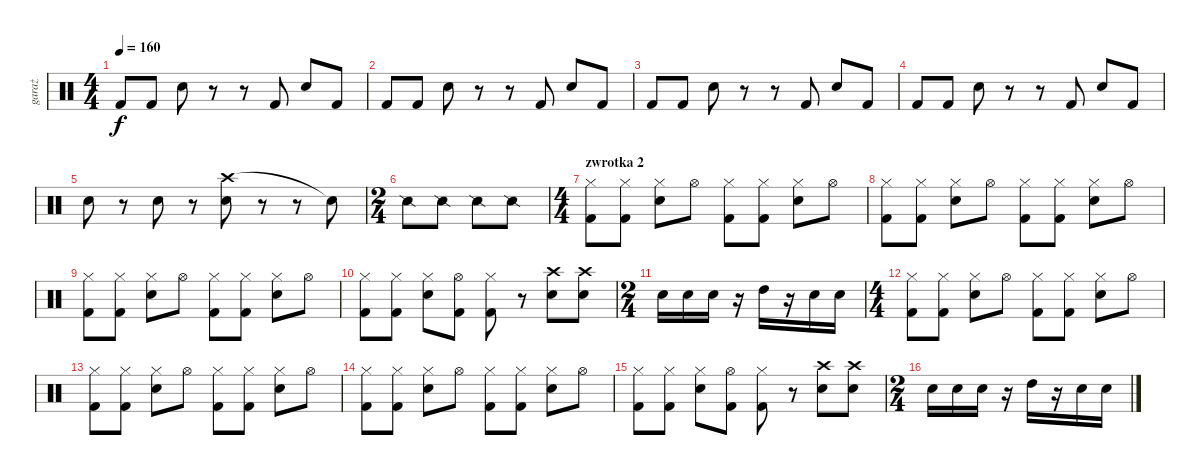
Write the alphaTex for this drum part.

\track ("garaż" "garaż") {instrument percussion}
\staff {score}
\articulation defaults
\ts (4 4)
\tempo 160
\clef neutral
\ks c "Kick (hit) 2".8{dy f} "Kick (hit) 2".8 "Snare (hit) 2".8
r.8 r.8 "Kick (hit) 2".8 "Snare (hit) 2".8 "Kick (hit) 2".8 |
"Kick (hit) 2".8 "Kick (hit) 2".8 "Snare (hit) 2".8 r.8 r.8 "Kick (hit) 2".8 "Snare (hit) 2".8 "Kick (hit) 2".8 |
"Kick (hit) 2".8 "Kick (hit) 2".8 "Snare (hit) 2".8 r.8 r.8 "Kick (hit) 2".8 "Snare (hit) 2".8 "Kick (hit) 2".8 |
"Kick (hit) 2".8 "Kick (hit) 2".8 "Snare (hit) 2".8 r.8 r.8 "Kick (hit) 2".8 "Snare (hit) 2".8 "Kick (hit) 2".8 |
"Snare (hit) 2".8 r.8 "Snare (hit) 2".8 r.8 ("Crash high (hit)" "Snare (hit) 2").8 r.8 r.8 "Snare (hit)"{t}.8 |
\ts (2 4)
"Snare (side stick) 2".8 "Snare (side stick) 2".8 "Snare (side stick) 2".8 "Snare (side stick) 2".8 |
\ts (4 4)
\section ("" "zwrotka 2")
("Hi-Hat (closed)" "Kick (hit) 2").8 ("Hi-Hat (closed)" "Kick (hit) 2").8 ("Hi-Hat (closed)" "Snare (hit) 2").8 "Hi-Hat (open)".8 ("Hi-Hat (closed)" "Kick (hit) 2").8 ("Hi-Hat (closed)" "Kick (hit) 2").8 ("Hi-Hat (closed)" "Snare (hit) 2").8 "Hi-Hat (open)".8 |
("Hi-Hat (closed)" "Kick (hit) 2").8 ("Hi-Hat (closed)" "Kick (hit) 2").8 ("Hi-Hat (closed)" "Snare (hit) 2").8 "Hi-Hat (open)".8 ("Hi-Hat (closed)" "Kick (hit) 2").8 ("Hi-Hat (closed)" "Kick (hit) 2").8 ("Hi-Hat (closed)" "Snare (hit) 2").8 "Hi-Hat (open)".8 |
("Hi-Hat (closed)" "Kick (hit) 2").8 ("Hi-Hat (closed)" "Kick (hit) 2").8 ("Hi-Hat (closed)" "Snare (hit) 2").8 "Hi-Hat (open)".8 ("Hi-Hat (closed)" "Kick (hit) 2").8 ("Hi-Hat (closed)" "Kick (hit) 2").8 ("Hi-Hat (closed)" "Snare (hit) 2").8 "Hi-Hat (open)".8 |
("Hi-Hat (closed)" "Kick (hit) 2").8 ("Hi-Hat (closed)" "Kick (hit) 2").8 ("Hi-Hat (closed)" "Snare (hit) 2").8 ("Hi-Hat (open)" "Kick (hit) 2").8 ("Hi-Hat (closed)" "Kick (hit) 2").8 r.8 ("Crash high (hit)" "Snare (hit) 2").8 ("Crash high (hit)" "Snare (hit) 2").8 |
\ts (2 4)
"Snare (hit) 2".16 "Snare (hit) 2".16 "Snare (hit) 2".16 r.16 "High Tom (hit)".16 r.16 "Snare (hit) 2".16 "Snare (hit) 2".16 |
\ts (4 4)
("Hi-Hat (closed)" "Kick (hit) 2").8 ("Hi-Hat (closed)" "Kick (hit) 2").8 ("Hi-Hat (closed)" "Snare (hit) 2").8 "Hi-Hat (open)".8 ("Hi-Hat (closed)" "Kick (hit) 2").8 ("Hi-Hat (closed)" "Kick (hit) 2").8 ("Hi-Hat (closed)" "Snare (hit) 2").8 "Hi-Hat (open)".8 |
("Hi-Hat (closed)" "Kick (hit) 2").8 ("Hi-Hat (closed)" "Kick (hit) 2").8 ("Hi-Hat (closed)" "Snare (hit) 2").8 "Hi-Hat (open)".8 ("Hi-Hat (closed)" "Kick (hit) 2").8 ("Hi-Hat (closed)" "Kick (hit) 2").8 ("Hi-Hat (closed)" "Snare (hit) 2").8 "Hi-Hat (open)".8 |
("Hi-Hat (closed)" "Kick (hit) 2").8 ("Hi-Hat (closed)" "Kick (hit) 2").8 ("Hi-Hat (closed)" "Snare (hit) 2").8 "Hi-Hat (open)".8 ("Hi-Hat (closed)" "Kick (hit) 2").8 ("Hi-Hat (closed)" "Kick (hit) 2").8 ("Hi-Hat (closed)" "Snare (hit) 2").8 "Hi-Hat (open)".8 |
("Hi-Hat (closed)" "Kick (hit) 2").8 ("Hi-Hat (closed)" "Kick (hit) 2").8 ("Hi-Hat (closed)" "Snare (hit) 2").8 ("Hi-Hat (open)" "Kick (hit) 2").8 ("Hi-Hat (closed)" "Kick (hit) 2").8 r.8 ("Crash high (hit)" "Snare (hit) 2").8 ("Crash high (hit)" "Snare (hit) 2").8 |
\ts (2 4)
"Snare (hit) 2".16 "Snare (hit) 2".16 "Snare (hit) 2".16 r.16 "High Tom (hit)".16 r.16 "Snare (hit) 2".16 "Snare (hit) 2".16
